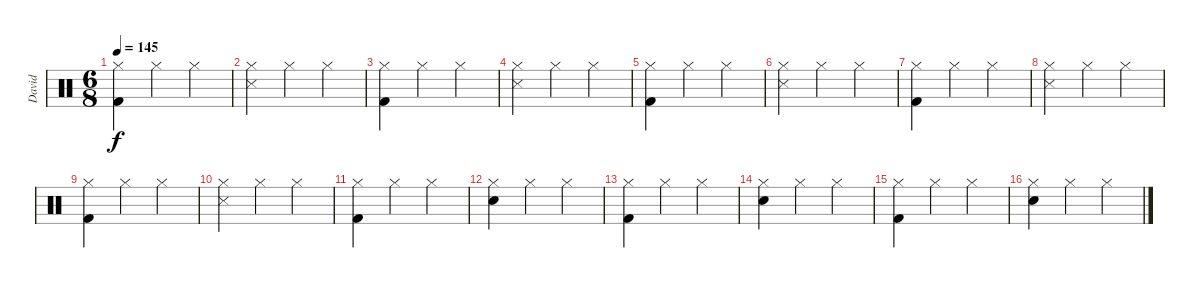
\track ("David" "David") {instrument percussion}
\staff {score}
\articulation defaults
\ts (6 8)
\tempo 145
\clef neutral
\ks c
("Hi-Hat (closed)" "Kick (hit) 2").4{dy f} "Hi-Hat (closed)".4 "Hi-Hat (closed)".4 |
("Hi-Hat (closed)" "Snare (side stick) 3").4 "Hi-Hat (closed)".4 "Hi-Hat (closed)".4 |
("Hi-Hat (closed)" "Kick (hit) 2").4 "Hi-Hat (closed)".4 "Hi-Hat (closed)".4 |
("Hi-Hat (closed)" "Snare (side stick) 3").4 "Hi-Hat (closed)".4 "Hi-Hat (closed)".4 |
("Hi-Hat (closed)" "Kick (hit) 2").4 "Hi-Hat (closed)".4 "Hi-Hat (closed)".4 |
("Hi-Hat (closed)" "Snare (side stick) 3").4 "Hi-Hat (closed)".4 "Hi-Hat (closed)".4 |
("Hi-Hat (closed)" "Kick (hit) 2").4 "Hi-Hat (closed)".4 "Hi-Hat (closed)".4 |
("Hi-Hat (closed)" "Snare (side stick) 3").4 "Hi-Hat (closed)".4 "Hi-Hat (closed)".4 |
("Hi-Hat (closed)" "Kick (hit) 2").4 "Hi-Hat (closed)".4 "Hi-Hat (closed)".4 |
("Hi-Hat (closed)" "Snare (side stick) 3").4 "Hi-Hat (closed)".4 "Hi-Hat (closed)".4 |
("Hi-Hat (closed)" "Kick (hit) 2").4 "Hi-Hat (closed)".4 "Hi-Hat (closed)".4 |
("Hi-Hat (closed)" "Electric Snare (hit)").4 "Hi-Hat (closed)".4 "Hi-Hat (closed)".4 |
("Hi-Hat (closed)" "Kick (hit) 2").4 "Hi-Hat (closed)".4 "Hi-Hat (closed)".4 |
("Hi-Hat (closed)" "Electric Snare (hit)").4 "Hi-Hat (closed)".4 "Hi-Hat (closed)".4 |
("Hi-Hat (closed)" "Kick (hit) 2").4 "Hi-Hat (closed)".4 "Hi-Hat (closed)".4 |
("Hi-Hat (closed)" "Electric Snare (hit)").4 "Hi-Hat (closed)".4 "Hi-Hat (closed)".4
